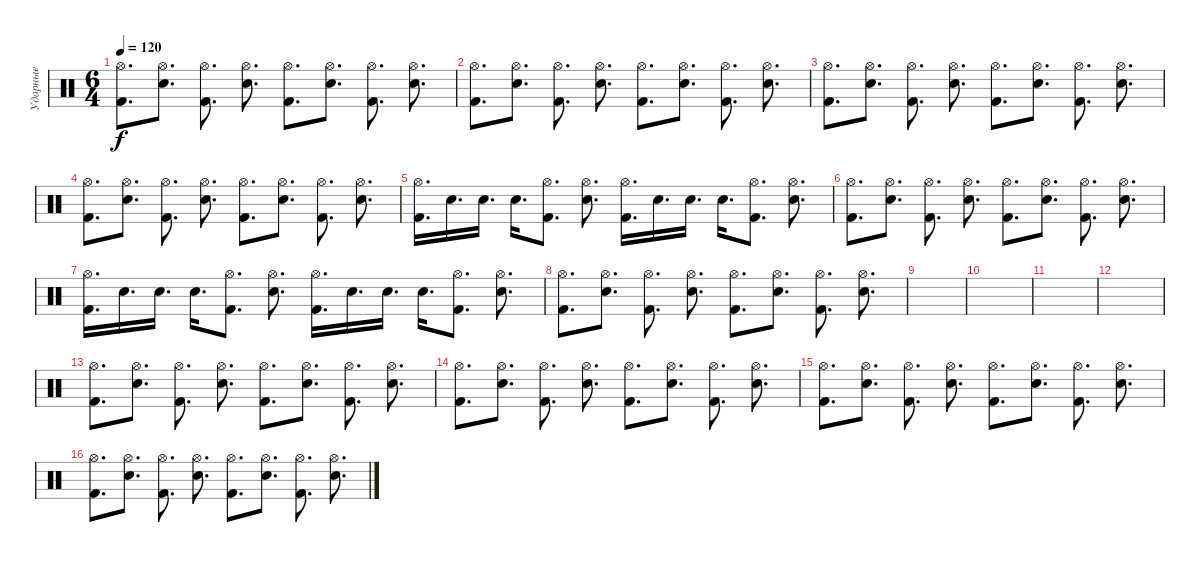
\track ("Ударные" "Ударные") {instrument percussion}
\staff {score}
\articulation defaults
\ts (6 4)
\tempo 120
\clef neutral
\ks c
("Hi-Hat (open)" "Kick (hit) 2").8{d dy f} ("Electric Snare (hit)" "Hi-Hat (open)").8{d} ("Hi-Hat (open)" "Kick (hit) 2").8{d} ("Electric Snare (hit)" "Hi-Hat (open)").8{d} ("Hi-Hat (open)" "Kick (hit) 2").8{d} ("Electric Snare (hit)" "Hi-Hat (open)").8{d} ("Hi-Hat (open)" "Kick (hit) 2").8{d} ("Electric Snare (hit)" "Hi-Hat (open)").8{d} |
("Hi-Hat (open)" "Kick (hit) 2").8{d} ("Electric Snare (hit)" "Hi-Hat (open)").8{d} ("Hi-Hat (open)" "Kick (hit) 2").8{d} ("Electric Snare (hit)" "Hi-Hat (open)").8{d} ("Hi-Hat (open)" "Kick (hit) 2").8{d} ("Electric Snare (hit)" "Hi-Hat (open)").8{d} ("Hi-Hat (open)" "Kick (hit) 2").8{d} ("Electric Snare (hit)" "Hi-Hat (open)").8{d} |
("Hi-Hat (open)" "Kick (hit) 2").8{d} ("Electric Snare (hit)" "Hi-Hat (open)").8{d} ("Hi-Hat (open)" "Kick (hit) 2").8{d} ("Electric Snare (hit)" "Hi-Hat (open)").8{d} ("Hi-Hat (open)" "Kick (hit) 2").8{d} ("Electric Snare (hit)" "Hi-Hat (open)").8{d} ("Hi-Hat (open)" "Kick (hit) 2").8{d} ("Electric Snare (hit)" "Hi-Hat (open)").8{d} |
("Hi-Hat (open)" "Kick (hit) 2").8{d} ("Electric Snare (hit)" "Hi-Hat (open)").8{d} ("Hi-Hat (open)" "Kick (hit) 2").8{d} ("Electric Snare (hit)" "Hi-Hat (open)").8{d} ("Hi-Hat (open)" "Kick (hit) 2").8{d} ("Electric Snare (hit)" "Hi-Hat (open)").8{d} ("Hi-Hat (open)" "Kick (hit) 2").8{d} ("Electric Snare (hit)" "Hi-Hat (open)").8{d} |
("Hi-Hat (open)" "Kick (hit) 2").16{d} "Electric Snare (hit)".16{d} "Electric Snare (hit)".16{d} "Electric Snare (hit)".16{d} ("Hi-Hat (open)" "Kick (hit) 2").8{d} ("Electric Snare (hit)" "Hi-Hat (open)").8{d} ("Hi-Hat (open)" "Kick (hit) 2").16{d} "Electric Snare (hit)".16{d} "Electric Snare (hit)".16{d} "Electric Snare (hit)".16{d} ("Hi-Hat (open)" "Kick (hit) 2").8{d} ("Electric Snare (hit)" "Hi-Hat (open)").8{d} |
("Hi-Hat (open)" "Kick (hit) 2").8{d} ("Electric Snare (hit)" "Hi-Hat (open)").8{d} ("Hi-Hat (open)" "Kick (hit) 2").8{d} ("Electric Snare (hit)" "Hi-Hat (open)").8{d} ("Hi-Hat (open)" "Kick (hit) 2").8{d} ("Electric Snare (hit)" "Hi-Hat (open)").8{d} ("Hi-Hat (open)" "Kick (hit) 2").8{d} ("Electric Snare (hit)" "Hi-Hat (open)").8{d} |
("Hi-Hat (open)" "Kick (hit) 2").16{d} "Electric Snare (hit)".16{d} "Electric Snare (hit)".16{d} "Electric Snare (hit)".16{d} ("Hi-Hat (open)" "Kick (hit) 2").8{d} ("Electric Snare (hit)" "Hi-Hat (open)").8{d} ("Hi-Hat (open)" "Kick (hit) 2").16{d} "Electric Snare (hit)".16{d} "Electric Snare (hit)".16{d} "Electric Snare (hit)".16{d} ("Hi-Hat (open)" "Kick (hit) 2").8{d} ("Electric Snare (hit)" "Hi-Hat (open)").8{d} |
("Hi-Hat (open)" "Kick (hit) 2").8{d} ("Electric Snare (hit)" "Hi-Hat (open)").8{d} ("Hi-Hat (open)" "Kick (hit) 2").8{d} ("Electric Snare (hit)" "Hi-Hat (open)").8{d} ("Hi-Hat (open)" "Kick (hit) 2").8{d} ("Electric Snare (hit)" "Hi-Hat (open)").8{d} ("Hi-Hat (open)" "Kick (hit) 2").8{d} ("Electric Snare (hit)" "Hi-Hat (open)").8{d} |
|
|
|
|
("Hi-Hat (open)" "Kick (hit) 2").8{d} ("Electric Snare (hit)" "Hi-Hat (open)").8{d} ("Hi-Hat (open)" "Kick (hit) 2").8{d} ("Electric Snare (hit)" "Hi-Hat (open)").8{d} ("Hi-Hat (open)" "Kick (hit) 2").8{d} ("Electric Snare (hit)" "Hi-Hat (open)").8{d} ("Hi-Hat (open)" "Kick (hit) 2").8{d} ("Electric Snare (hit)" "Hi-Hat (open)").8{d} |
("Hi-Hat (open)" "Kick (hit) 2").8{d} ("Electric Snare (hit)" "Hi-Hat (open)").8{d} ("Hi-Hat (open)" "Kick (hit) 2").8{d} ("Electric Snare (hit)" "Hi-Hat (open)").8{d} ("Hi-Hat (open)" "Kick (hit) 2").8{d} ("Electric Snare (hit)" "Hi-Hat (open)").8{d} ("Hi-Hat (open)" "Kick (hit) 2").8{d} ("Electric Snare (hit)" "Hi-Hat (open)").8{d} |
("Hi-Hat (open)" "Kick (hit) 2").8{d} ("Electric Snare (hit)" "Hi-Hat (open)").8{d} ("Hi-Hat (open)" "Kick (hit) 2").8{d} ("Electric Snare (hit)" "Hi-Hat (open)").8{d} ("Hi-Hat (open)" "Kick (hit) 2").8{d} ("Electric Snare (hit)" "Hi-Hat (open)").8{d} ("Hi-Hat (open)" "Kick (hit) 2").8{d} ("Electric Snare (hit)" "Hi-Hat (open)").8{d} |
("Hi-Hat (open)" "Kick (hit) 2").8{d} ("Electric Snare (hit)" "Hi-Hat (open)").8{d} ("Hi-Hat (open)" "Kick (hit) 2").8{d} ("Electric Snare (hit)" "Hi-Hat (open)").8{d} ("Hi-Hat (open)" "Kick (hit) 2").8{d} ("Electric Snare (hit)" "Hi-Hat (open)").8{d} ("Hi-Hat (open)" "Kick (hit) 2").8{d} ("Electric Snare (hit)" "Hi-Hat (open)").8{d}
